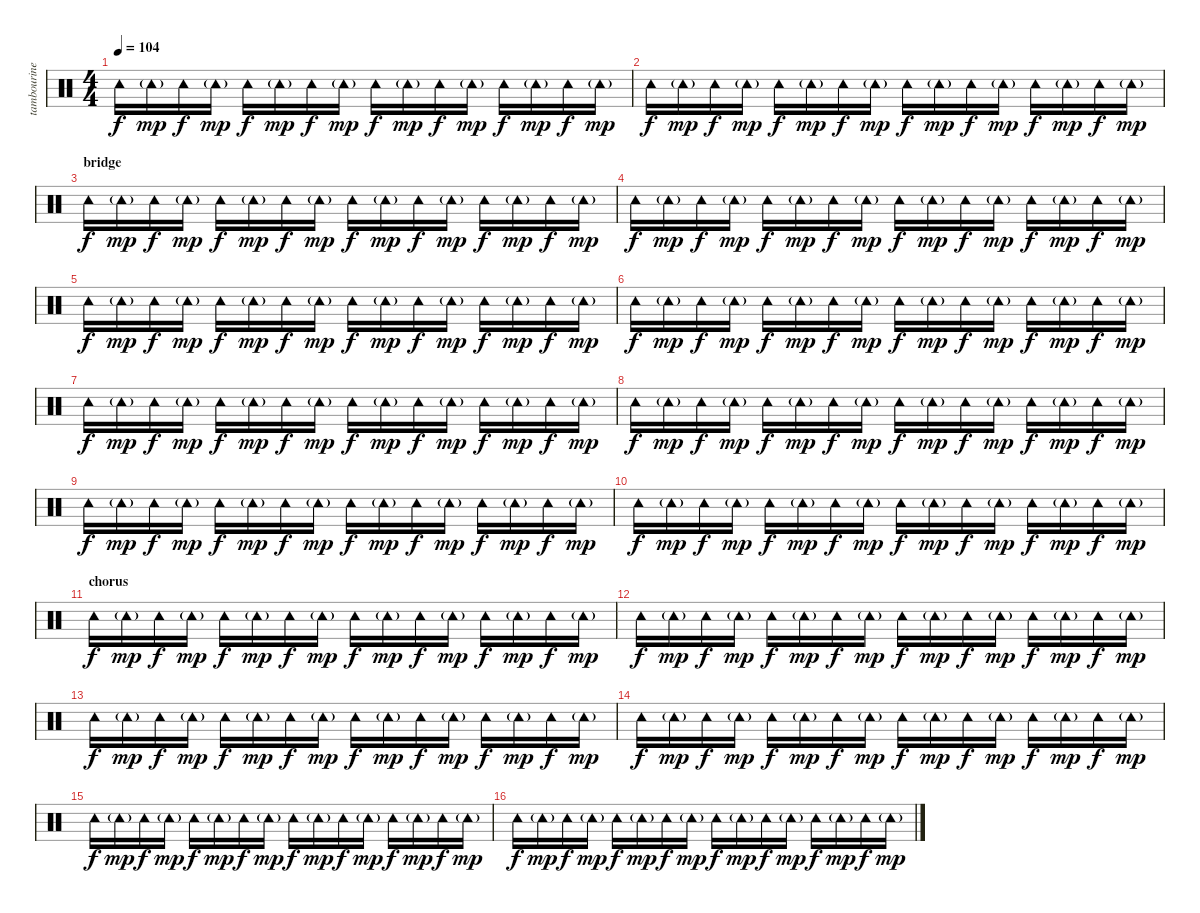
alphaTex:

\track ("tambourine" "tambourine") {instrument percussion}
\staff {score}
\articulation defaults
\ts (4 4)
\tempo 104
\clef neutral
\ks c "Tambourine (hit)".16{dy f} "Tambourine (hit)"{g}.16{dy mp} "Tambourine (hit)".16{dy f} "Tambourine (hit)"{g}.16{dy mp} "Tambourine (hit)".16{dy f} "Tambourine (hit)"{g}.16{dy mp} "Tambourine (hit)".16{dy f} "Tambourine (hit)"{g}.16{dy mp} "Tambourine (hit)".16{dy f} "Tambourine (hit)"{g}.16{dy mp} "Tambourine (hit)".16{dy f} "Tambourine (hit)"{g}.16{dy mp} "Tambourine (hit)".16{dy f} "Tambourine (hit)"{g}.16{dy mp} "Tambourine (hit)".16{dy f} "Tambourine (hit)"{g}.16{dy mp}
|
"Tambourine (hit)".16{dy f} "Tambourine (hit)"{g}.16{dy mp} "Tambourine (hit)".16{dy f} "Tambourine (hit)"{g}.16{dy mp} "Tambourine (hit)".16{dy f} "Tambourine (hit)"{g}.16{dy mp} "Tambourine (hit)".16{dy f} "Tambourine (hit)"{g}.16{dy mp} "Tambourine (hit)".16{dy f} "Tambourine (hit)"{g}.16{dy mp} "Tambourine (hit)".16{dy f} "Tambourine (hit)"{g}.16{dy mp} "Tambourine (hit)".16{dy f} "Tambourine (hit)"{g}.16{dy mp} "Tambourine (hit)".16{dy f} "Tambourine (hit)"{g}.16{dy mp} |
\section ("" "bridge")
"Tambourine (hit)".16{dy f} "Tambourine (hit)"{g}.16{dy mp} "Tambourine (hit)".16{dy f} "Tambourine (hit)"{g}.16{dy mp} "Tambourine (hit)".16{dy f} "Tambourine (hit)"{g}.16{dy mp} "Tambourine (hit)".16{dy f} "Tambourine (hit)"{g}.16{dy mp} "Tambourine (hit)".16{dy f} "Tambourine (hit)"{g}.16{dy mp} "Tambourine (hit)".16{dy f} "Tambourine (hit)"{g}.16{dy mp} "Tambourine (hit)".16{dy f} "Tambourine (hit)"{g}.16{dy mp} "Tambourine (hit)".16{dy f} "Tambourine (hit)"{g}.16{dy mp} |
"Tambourine (hit)".16{dy f} "Tambourine (hit)"{g}.16{dy mp} "Tambourine (hit)".16{dy f} "Tambourine (hit)"{g}.16{dy mp} "Tambourine (hit)".16{dy f} "Tambourine (hit)"{g}.16{dy mp} "Tambourine (hit)".16{dy f} "Tambourine (hit)"{g}.16{dy mp} "Tambourine (hit)".16{dy f} "Tambourine (hit)"{g}.16{dy mp} "Tambourine (hit)".16{dy f} "Tambourine (hit)"{g}.16{dy mp} "Tambourine (hit)".16{dy f} "Tambourine (hit)"{g}.16{dy mp} "Tambourine (hit)".16{dy f} "Tambourine (hit)"{g}.16{dy mp} |
"Tambourine (hit)".16{dy f} "Tambourine (hit)"{g}.16{dy mp} "Tambourine (hit)".16{dy f} "Tambourine (hit)"{g}.16{dy mp} "Tambourine (hit)".16{dy f} "Tambourine (hit)"{g}.16{dy mp} "Tambourine (hit)".16{dy f} "Tambourine (hit)"{g}.16{dy mp} "Tambourine (hit)".16{dy f} "Tambourine (hit)"{g}.16{dy mp} "Tambourine (hit)".16{dy f} "Tambourine (hit)"{g}.16{dy mp} "Tambourine (hit)".16{dy f} "Tambourine (hit)"{g}.16{dy mp} "Tambourine (hit)".16{dy f} "Tambourine (hit)"{g}.16{dy mp} |
"Tambourine (hit)".16{dy f} "Tambourine (hit)"{g}.16{dy mp} "Tambourine (hit)".16{dy f} "Tambourine (hit)"{g}.16{dy mp} "Tambourine (hit)".16{dy f} "Tambourine (hit)"{g}.16{dy mp} "Tambourine (hit)".16{dy f} "Tambourine (hit)"{g}.16{dy mp} "Tambourine (hit)".16{dy f} "Tambourine (hit)"{g}.16{dy mp} "Tambourine (hit)".16{dy f} "Tambourine (hit)"{g}.16{dy mp} "Tambourine (hit)".16{dy f} "Tambourine (hit)"{g}.16{dy mp} "Tambourine (hit)".16{dy f} "Tambourine (hit)"{g}.16{dy mp} |
"Tambourine (hit)".16{dy f} "Tambourine (hit)"{g}.16{dy mp} "Tambourine (hit)".16{dy f} "Tambourine (hit)"{g}.16{dy mp} "Tambourine (hit)".16{dy f} "Tambourine (hit)"{g}.16{dy mp} "Tambourine (hit)".16{dy f} "Tambourine (hit)"{g}.16{dy mp} "Tambourine (hit)".16{dy f} "Tambourine (hit)"{g}.16{dy mp} "Tambourine (hit)".16{dy f} "Tambourine (hit)"{g}.16{dy mp} "Tambourine (hit)".16{dy f} "Tambourine (hit)"{g}.16{dy mp} "Tambourine (hit)".16{dy f} "Tambourine (hit)"{g}.16{dy mp} |
"Tambourine (hit)".16{dy f} "Tambourine (hit)"{g}.16{dy mp} "Tambourine (hit)".16{dy f} "Tambourine (hit)"{g}.16{dy mp} "Tambourine (hit)".16{dy f} "Tambourine (hit)"{g}.16{dy mp} "Tambourine (hit)".16{dy f} "Tambourine (hit)"{g}.16{dy mp} "Tambourine (hit)".16{dy f} "Tambourine (hit)"{g}.16{dy mp} "Tambourine (hit)".16{dy f} "Tambourine (hit)"{g}.16{dy mp} "Tambourine (hit)".16{dy f} "Tambourine (hit)"{g}.16{dy mp} "Tambourine (hit)".16{dy f} "Tambourine (hit)"{g}.16{dy mp} |
"Tambourine (hit)".16{dy f} "Tambourine (hit)"{g}.16{dy mp} "Tambourine (hit)".16{dy f} "Tambourine (hit)"{g}.16{dy mp} "Tambourine (hit)".16{dy f} "Tambourine (hit)"{g}.16{dy mp} "Tambourine (hit)".16{dy f} "Tambourine (hit)"{g}.16{dy mp} "Tambourine (hit)".16{dy f} "Tambourine (hit)"{g}.16{dy mp} "Tambourine (hit)".16{dy f} "Tambourine (hit)"{g}.16{dy mp} "Tambourine (hit)".16{dy f} "Tambourine (hit)"{g}.16{dy mp} "Tambourine (hit)".16{dy f} "Tambourine (hit)"{g}.16{dy mp} |
"Tambourine (hit)".16{dy f} "Tambourine (hit)"{g}.16{dy mp} "Tambourine (hit)".16{dy f} "Tambourine (hit)"{g}.16{dy mp} "Tambourine (hit)".16{dy f} "Tambourine (hit)"{g}.16{dy mp} "Tambourine (hit)".16{dy f} "Tambourine (hit)"{g}.16{dy mp} "Tambourine (hit)".16{dy f} "Tambourine (hit)"{g}.16{dy mp} "Tambourine (hit)".16{dy f} "Tambourine (hit)"{g}.16{dy mp} "Tambourine (hit)".16{dy f} "Tambourine (hit)"{g}.16{dy mp} "Tambourine (hit)".16{dy f} "Tambourine (hit)"{g}.16{dy mp} |
\section ("" "chorus")
"Tambourine (hit)".16{dy f} "Tambourine (hit)"{g}.16{dy mp} "Tambourine (hit)".16{dy f} "Tambourine (hit)"{g}.16{dy mp} "Tambourine (hit)".16{dy f} "Tambourine (hit)"{g}.16{dy mp} "Tambourine (hit)".16{dy f} "Tambourine (hit)"{g}.16{dy mp} "Tambourine (hit)".16{dy f} "Tambourine (hit)"{g}.16{dy mp} "Tambourine (hit)".16{dy f} "Tambourine (hit)"{g}.16{dy mp} "Tambourine (hit)".16{dy f} "Tambourine (hit)"{g}.16{dy mp} "Tambourine (hit)".16{dy f} "Tambourine (hit)"{g}.16{dy mp} |
"Tambourine (hit)".16{dy f} "Tambourine (hit)"{g}.16{dy mp} "Tambourine (hit)".16{dy f} "Tambourine (hit)"{g}.16{dy mp} "Tambourine (hit)".16{dy f} "Tambourine (hit)"{g}.16{dy mp} "Tambourine (hit)".16{dy f} "Tambourine (hit)"{g}.16{dy mp} "Tambourine (hit)".16{dy f} "Tambourine (hit)"{g}.16{dy mp} "Tambourine (hit)".16{dy f} "Tambourine (hit)"{g}.16{dy mp} "Tambourine (hit)".16{dy f} "Tambourine (hit)"{g}.16{dy mp} "Tambourine (hit)".16{dy f} "Tambourine (hit)"{g}.16{dy mp} |
"Tambourine (hit)".16{dy f} "Tambourine (hit)"{g}.16{dy mp} "Tambourine (hit)".16{dy f} "Tambourine (hit)"{g}.16{dy mp} "Tambourine (hit)".16{dy f} "Tambourine (hit)"{g}.16{dy mp} "Tambourine (hit)".16{dy f} "Tambourine (hit)"{g}.16{dy mp} "Tambourine (hit)".16{dy f} "Tambourine (hit)"{g}.16{dy mp} "Tambourine (hit)".16{dy f} "Tambourine (hit)"{g}.16{dy mp} "Tambourine (hit)".16{dy f} "Tambourine (hit)"{g}.16{dy mp} "Tambourine (hit)".16{dy f} "Tambourine (hit)"{g}.16{dy mp} |
"Tambourine (hit)".16{dy f} "Tambourine (hit)"{g}.16{dy mp} "Tambourine (hit)".16{dy f} "Tambourine (hit)"{g}.16{dy mp} "Tambourine (hit)".16{dy f} "Tambourine (hit)"{g}.16{dy mp} "Tambourine (hit)".16{dy f} "Tambourine (hit)"{g}.16{dy mp} "Tambourine (hit)".16{dy f} "Tambourine (hit)"{g}.16{dy mp} "Tambourine (hit)".16{dy f} "Tambourine (hit)"{g}.16{dy mp} "Tambourine (hit)".16{dy f} "Tambourine (hit)"{g}.16{dy mp} "Tambourine (hit)".16{dy f} "Tambourine (hit)"{g}.16{dy mp} |
"Tambourine (hit)".16{dy f} "Tambourine (hit)"{g}.16{dy mp} "Tambourine (hit)".16{dy f} "Tambourine (hit)"{g}.16{dy mp} "Tambourine (hit)".16{dy f} "Tambourine (hit)"{g}.16{dy mp} "Tambourine (hit)".16{dy f} "Tambourine (hit)"{g}.16{dy mp} "Tambourine (hit)".16{dy f} "Tambourine (hit)"{g}.16{dy mp} "Tambourine (hit)".16{dy f} "Tambourine (hit)"{g}.16{dy mp} "Tambourine (hit)".16{dy f} "Tambourine (hit)"{g}.16{dy mp} "Tambourine (hit)".16{dy f} "Tambourine (hit)"{g}.16{dy mp} |
"Tambourine (hit)".16{dy f} "Tambourine (hit)"{g}.16{dy mp} "Tambourine (hit)".16{dy f} "Tambourine (hit)"{g}.16{dy mp} "Tambourine (hit)".16{dy f} "Tambourine (hit)"{g}.16{dy mp} "Tambourine (hit)".16{dy f} "Tambourine (hit)"{g}.16{dy mp} "Tambourine (hit)".16{dy f} "Tambourine (hit)"{g}.16{dy mp} "Tambourine (hit)".16{dy f} "Tambourine (hit)"{g}.16{dy mp} "Tambourine (hit)".16{dy f} "Tambourine (hit)"{g}.16{dy mp} "Tambourine (hit)".16{dy f} "Tambourine (hit)"{g}.16{dy mp}
